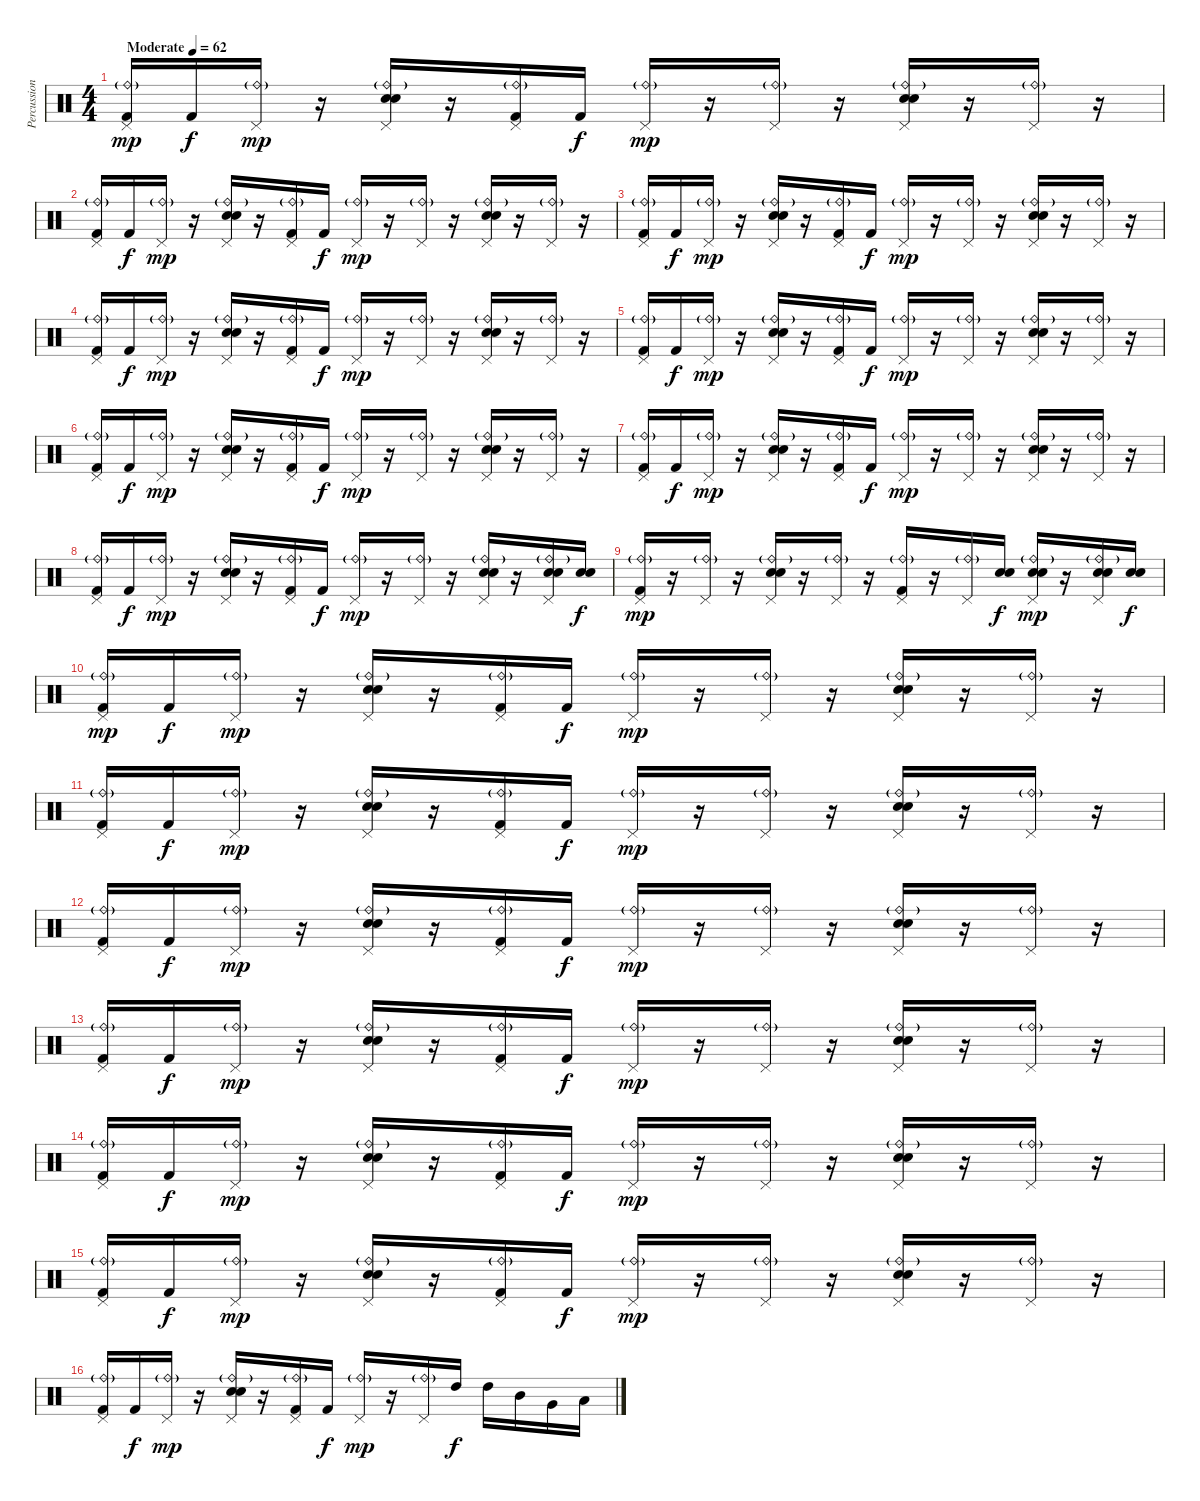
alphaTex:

\track ("Percussion" "Percussion") {instrument percussion}
\staff {score}
\articulation defaults
\ts (4 4)
\tempo (62 "Moderate")
\clef neutral
\ks c
("Pedal Hi-Hat (hit)" "Ride (bell)"{g} "Kick (hit) 2").16{dy mp} "Kick (hit) 2".16{dy f} ("Pedal Hi-Hat (hit)" "Ride (bell)"{g}).16{dy mp} r.16 ("Pedal Hi-Hat (hit)" "Ride (bell)"{g} "Electric Snare (hit)" "Snare (hit) 2").16 r.16 ("Pedal Hi-Hat (hit)" "Ride (bell)"{g} "Kick (hit) 2").16 "Kick (hit) 2".16{dy f} ("Pedal Hi-Hat (hit)" "Ride (bell)"{g}).16{dy mp} r.16 ("Pedal Hi-Hat (hit)" "Ride (bell)"{g}).16 r.16 ("Pedal Hi-Hat (hit)" "Ride (bell)"{g} "Electric Snare (hit)" "Snare (hit) 2").16 r.16 ("Pedal Hi-Hat (hit)" "Ride (bell)"{g}).16 r.16 |
("Pedal Hi-Hat (hit)" "Ride (bell)"{g} "Kick (hit) 2").16 "Kick (hit) 2".16{dy f} ("Pedal Hi-Hat (hit)" "Ride (bell)"{g}).16{dy mp} r.16 ("Pedal Hi-Hat (hit)" "Ride (bell)"{g} "Electric Snare (hit)" "Snare (hit) 2").16 r.16 ("Pedal Hi-Hat (hit)" "Ride (bell)"{g} "Kick (hit) 2").16 "Kick (hit) 2".16{dy f} ("Pedal Hi-Hat (hit)" "Ride (bell)"{g}).16{dy mp} r.16 ("Pedal Hi-Hat (hit)" "Ride (bell)"{g}).16 r.16 ("Pedal Hi-Hat (hit)" "Ride (bell)"{g} "Electric Snare (hit)" "Snare (hit) 2").16 r.16 ("Pedal Hi-Hat (hit)" "Ride (bell)"{g}).16 r.16 |
("Pedal Hi-Hat (hit)" "Ride (bell)"{g} "Kick (hit) 2").16 "Kick (hit) 2".16{dy f} ("Pedal Hi-Hat (hit)" "Ride (bell)"{g}).16{dy mp} r.16 ("Pedal Hi-Hat (hit)" "Ride (bell)"{g} "Electric Snare (hit)" "Snare (hit) 2").16 r.16 ("Pedal Hi-Hat (hit)" "Ride (bell)"{g} "Kick (hit) 2").16 "Kick (hit) 2".16{dy f} ("Pedal Hi-Hat (hit)" "Ride (bell)"{g}).16{dy mp} r.16 ("Pedal Hi-Hat (hit)" "Ride (bell)"{g}).16 r.16 ("Pedal Hi-Hat (hit)" "Ride (bell)"{g} "Electric Snare (hit)" "Snare (hit) 2").16 r.16 ("Pedal Hi-Hat (hit)" "Ride (bell)"{g}).16 r.16 |
("Pedal Hi-Hat (hit)" "Ride (bell)"{g} "Kick (hit) 2").16 "Kick (hit) 2".16{dy f} ("Pedal Hi-Hat (hit)" "Ride (bell)"{g}).16{dy mp} r.16 ("Pedal Hi-Hat (hit)" "Ride (bell)"{g} "Electric Snare (hit)" "Snare (hit) 2").16 r.16 ("Pedal Hi-Hat (hit)" "Ride (bell)"{g} "Kick (hit) 2").16 "Kick (hit) 2".16{dy f} ("Pedal Hi-Hat (hit)" "Ride (bell)"{g}).16{dy mp} r.16 ("Pedal Hi-Hat (hit)" "Ride (bell)"{g}).16 r.16 ("Pedal Hi-Hat (hit)" "Ride (bell)"{g} "Electric Snare (hit)" "Snare (hit) 2").16 r.16 ("Pedal Hi-Hat (hit)" "Ride (bell)"{g}).16 r.16 |
("Pedal Hi-Hat (hit)" "Ride (bell)"{g} "Kick (hit) 2").16 "Kick (hit) 2".16{dy f} ("Pedal Hi-Hat (hit)" "Ride (bell)"{g}).16{dy mp} r.16 ("Pedal Hi-Hat (hit)" "Ride (bell)"{g} "Electric Snare (hit)" "Snare (hit) 2").16 r.16 ("Pedal Hi-Hat (hit)" "Ride (bell)"{g} "Kick (hit) 2").16 "Kick (hit) 2".16{dy f} ("Pedal Hi-Hat (hit)" "Ride (bell)"{g}).16{dy mp} r.16 ("Pedal Hi-Hat (hit)" "Ride (bell)"{g}).16 r.16 ("Pedal Hi-Hat (hit)" "Ride (bell)"{g} "Electric Snare (hit)" "Snare (hit) 2").16 r.16 ("Pedal Hi-Hat (hit)" "Ride (bell)"{g}).16 r.16 |
("Pedal Hi-Hat (hit)" "Ride (bell)"{g} "Kick (hit) 2").16 "Kick (hit) 2".16{dy f} ("Pedal Hi-Hat (hit)" "Ride (bell)"{g}).16{dy mp} r.16 ("Pedal Hi-Hat (hit)" "Ride (bell)"{g} "Electric Snare (hit)" "Snare (hit) 2").16 r.16 ("Pedal Hi-Hat (hit)" "Ride (bell)"{g} "Kick (hit) 2").16 "Kick (hit) 2".16{dy f} ("Pedal Hi-Hat (hit)" "Ride (bell)"{g}).16{dy mp} r.16 ("Pedal Hi-Hat (hit)" "Ride (bell)"{g}).16 r.16 ("Pedal Hi-Hat (hit)" "Ride (bell)"{g} "Electric Snare (hit)" "Snare (hit) 2").16 r.16 ("Pedal Hi-Hat (hit)" "Ride (bell)"{g}).16 r.16 |
("Pedal Hi-Hat (hit)" "Ride (bell)"{g} "Kick (hit) 2").16 "Kick (hit) 2".16{dy f} ("Pedal Hi-Hat (hit)" "Ride (bell)"{g}).16{dy mp} r.16 ("Pedal Hi-Hat (hit)" "Ride (bell)"{g} "Electric Snare (hit)" "Snare (hit) 2").16 r.16 ("Pedal Hi-Hat (hit)" "Ride (bell)"{g} "Kick (hit) 2").16 "Kick (hit) 2".16{dy f} ("Pedal Hi-Hat (hit)" "Ride (bell)"{g}).16{dy mp} r.16 ("Pedal Hi-Hat (hit)" "Ride (bell)"{g}).16 r.16 ("Pedal Hi-Hat (hit)" "Ride (bell)"{g} "Electric Snare (hit)" "Snare (hit) 2").16 r.16 ("Pedal Hi-Hat (hit)" "Ride (bell)"{g}).16 r.16 |
("Pedal Hi-Hat (hit)" "Ride (bell)"{g} "Kick (hit) 2").16 "Kick (hit) 2".16{dy f} ("Pedal Hi-Hat (hit)" "Ride (bell)"{g}).16{dy mp} r.16 ("Pedal Hi-Hat (hit)" "Ride (bell)"{g} "Electric Snare (hit)" "Snare (hit) 2").16 r.16 ("Pedal Hi-Hat (hit)" "Ride (bell)"{g} "Kick (hit) 2").16 "Kick (hit) 2".16{dy f} ("Pedal Hi-Hat (hit)" "Ride (bell)"{g}).16{dy mp} r.16 ("Pedal Hi-Hat (hit)" "Ride (bell)"{g}).16 r.16 ("Pedal Hi-Hat (hit)" "Ride (bell)"{g} "Electric Snare (hit)" "Snare (hit) 2").16 r.16 ("Pedal Hi-Hat (hit)" "Ride (bell)"{g} "Electric Snare (hit)" "Snare (hit) 2").16 ("Electric Snare (hit)" "Snare (hit) 2").16{dy f} |
("Pedal Hi-Hat (hit)" "Ride (bell)"{g} "Kick (hit) 2").16{dy mp} r.16 ("Pedal Hi-Hat (hit)" "Ride (bell)"{g}).16 r.16 ("Pedal Hi-Hat (hit)" "Ride (bell)"{g} "Electric Snare (hit)" "Snare (hit) 2").16 r.16 ("Pedal Hi-Hat (hit)" "Ride (bell)"{g}).16 r.16 ("Pedal Hi-Hat (hit)" "Ride (bell)"{g} "Kick (hit) 2").16 r.16 ("Pedal Hi-Hat (hit)" "Ride (bell)"{g}).16 ("Electric Snare (hit)" "Snare (hit) 2").16{dy f} ("Pedal Hi-Hat (hit)" "Ride (bell)"{g} "Electric Snare (hit)" "Snare (hit) 2").16{dy mp} r.16 ("Pedal Hi-Hat (hit)" "Ride (bell)"{g} "Electric Snare (hit)" "Snare (hit) 2").16 ("Electric Snare (hit)" "Snare (hit) 2").16{dy f} |
("Pedal Hi-Hat (hit)" "Ride (bell)"{g} "Kick (hit) 2").16{dy mp} "Kick (hit) 2".16{dy f} ("Pedal Hi-Hat (hit)" "Ride (bell)"{g}).16{dy mp} r.16 ("Pedal Hi-Hat (hit)" "Ride (bell)"{g} "Electric Snare (hit)" "Snare (hit) 2").16 r.16 ("Pedal Hi-Hat (hit)" "Ride (bell)"{g} "Kick (hit) 2").16 "Kick (hit) 2".16{dy f} ("Pedal Hi-Hat (hit)" "Ride (bell)"{g}).16{dy mp} r.16 ("Pedal Hi-Hat (hit)" "Ride (bell)"{g}).16 r.16 ("Pedal Hi-Hat (hit)" "Ride (bell)"{g} "Electric Snare (hit)" "Snare (hit) 2").16 r.16 ("Pedal Hi-Hat (hit)" "Ride (bell)"{g}).16 r.16 |
("Pedal Hi-Hat (hit)" "Ride (bell)"{g} "Kick (hit) 2").16 "Kick (hit) 2".16{dy f} ("Pedal Hi-Hat (hit)" "Ride (bell)"{g}).16{dy mp} r.16 ("Pedal Hi-Hat (hit)" "Ride (bell)"{g} "Electric Snare (hit)" "Snare (hit) 2").16 r.16 ("Pedal Hi-Hat (hit)" "Ride (bell)"{g} "Kick (hit) 2").16 "Kick (hit) 2".16{dy f} ("Pedal Hi-Hat (hit)" "Ride (bell)"{g}).16{dy mp} r.16 ("Pedal Hi-Hat (hit)" "Ride (bell)"{g}).16 r.16 ("Pedal Hi-Hat (hit)" "Ride (bell)"{g} "Electric Snare (hit)" "Snare (hit) 2").16 r.16 ("Pedal Hi-Hat (hit)" "Ride (bell)"{g}).16 r.16 |
("Pedal Hi-Hat (hit)" "Ride (bell)"{g} "Kick (hit) 2").16 "Kick (hit) 2".16{dy f} ("Pedal Hi-Hat (hit)" "Ride (bell)"{g}).16{dy mp} r.16 ("Pedal Hi-Hat (hit)" "Ride (bell)"{g} "Electric Snare (hit)" "Snare (hit) 2").16 r.16 ("Pedal Hi-Hat (hit)" "Ride (bell)"{g} "Kick (hit) 2").16 "Kick (hit) 2".16{dy f} ("Pedal Hi-Hat (hit)" "Ride (bell)"{g}).16{dy mp} r.16 ("Pedal Hi-Hat (hit)" "Ride (bell)"{g}).16 r.16 ("Pedal Hi-Hat (hit)" "Ride (bell)"{g} "Electric Snare (hit)" "Snare (hit) 2").16 r.16 ("Pedal Hi-Hat (hit)" "Ride (bell)"{g}).16 r.16 |
("Pedal Hi-Hat (hit)" "Ride (bell)"{g} "Kick (hit) 2").16 "Kick (hit) 2".16{dy f} ("Pedal Hi-Hat (hit)" "Ride (bell)"{g}).16{dy mp} r.16 ("Pedal Hi-Hat (hit)" "Ride (bell)"{g} "Electric Snare (hit)" "Snare (hit) 2").16 r.16 ("Pedal Hi-Hat (hit)" "Ride (bell)"{g} "Kick (hit) 2").16 "Kick (hit) 2".16{dy f} ("Pedal Hi-Hat (hit)" "Ride (bell)"{g}).16{dy mp} r.16 ("Pedal Hi-Hat (hit)" "Ride (bell)"{g}).16 r.16 ("Pedal Hi-Hat (hit)" "Ride (bell)"{g} "Electric Snare (hit)" "Snare (hit) 2").16 r.16 ("Pedal Hi-Hat (hit)" "Ride (bell)"{g}).16 r.16 |
("Pedal Hi-Hat (hit)" "Ride (bell)"{g} "Kick (hit) 2").16 "Kick (hit) 2".16{dy f} ("Pedal Hi-Hat (hit)" "Ride (bell)"{g}).16{dy mp} r.16 ("Pedal Hi-Hat (hit)" "Ride (bell)"{g} "Electric Snare (hit)" "Snare (hit) 2").16 r.16 ("Pedal Hi-Hat (hit)" "Ride (bell)"{g} "Kick (hit) 2").16 "Kick (hit) 2".16{dy f} ("Pedal Hi-Hat (hit)" "Ride (bell)"{g}).16{dy mp} r.16 ("Pedal Hi-Hat (hit)" "Ride (bell)"{g}).16 r.16 ("Pedal Hi-Hat (hit)" "Ride (bell)"{g} "Electric Snare (hit)" "Snare (hit) 2").16 r.16 ("Pedal Hi-Hat (hit)" "Ride (bell)"{g}).16 r.16 |
("Pedal Hi-Hat (hit)" "Ride (bell)"{g} "Kick (hit) 2").16 "Kick (hit) 2".16{dy f} ("Pedal Hi-Hat (hit)" "Ride (bell)"{g}).16{dy mp} r.16 ("Pedal Hi-Hat (hit)" "Ride (bell)"{g} "Electric Snare (hit)" "Snare (hit) 2").16 r.16 ("Pedal Hi-Hat (hit)" "Ride (bell)"{g} "Kick (hit) 2").16 "Kick (hit) 2".16{dy f} ("Pedal Hi-Hat (hit)" "Ride (bell)"{g}).16{dy mp} r.16 ("Pedal Hi-Hat (hit)" "Ride (bell)"{g}).16 r.16 ("Pedal Hi-Hat (hit)" "Ride (bell)"{g} "Electric Snare (hit)" "Snare (hit) 2").16 r.16 ("Pedal Hi-Hat (hit)" "Ride (bell)"{g}).16 r.16 |
("Pedal Hi-Hat (hit)" "Ride (bell)"{g} "Kick (hit) 2").16 "Kick (hit) 2".16{dy f} ("Pedal Hi-Hat (hit)" "Ride (bell)"{g}).16{dy mp} r.16 ("Pedal Hi-Hat (hit)" "Ride (bell)"{g} "Electric Snare (hit)" "Snare (hit) 2").16 r.16 ("Pedal Hi-Hat (hit)" "Ride (bell)"{g} "Kick (hit) 2").16 "Kick (hit) 2".16{dy f} ("Pedal Hi-Hat (hit)" "Ride (bell)"{g}).16{dy mp} r.16 ("Pedal Hi-Hat (hit)" "Ride (bell)"{g}).16 "High Tom (hit)".16{dy f} "High Tom (hit)".16 "Mid Tom (hit)".16 "Very Low Tom (hit)".16 "Low Floor Tom (hit)".16
